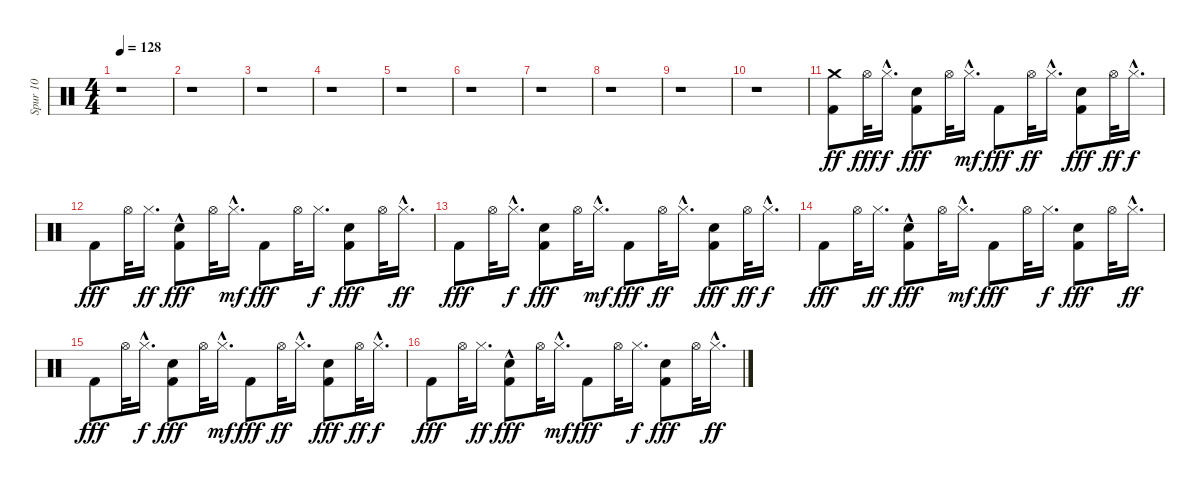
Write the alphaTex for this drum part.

\track ("Spur 10" "Spur 10") {instrument percussion}
\staff {score}
\articulation defaults
\ts (4 4)
\tempo 128
\clef neutral
\ks c
r.1{dy ff} |
r.1 |
r.1 |
r.1 |
r.1 |
r.1 |
r.1 |
r.1 |
r.1 |
r.1 |
("Kick (hit) 2" "Crash medium (hit)").8 "Hi-Hat (open)".32{dy fff} "Hi-Hat (closed)"{hac}.16{d dy f} ("Hand Clap (hit)" "Kick (hit) 2").8{dy fff} "Hi-Hat (open)".32 "Hi-Hat (closed)"{hac}.16{d dy mf} "Kick (hit) 2".8{dy fff} "Hi-Hat (open)".32{dy ff} "Hi-Hat (closed)"{hac}.16{d} ("Hand Clap (hit)" "Kick (hit) 2").8{dy fff} "Hi-Hat (open)".32{dy ff} "Hi-Hat (closed)"{hac}.16{d dy f} |
"Kick (hit) 2".8{dy fff} "Hi-Hat (open)".32 "Hi-Hat (closed)".16{d dy ff} ("Hand Clap (hit)"{hac} "Kick (hit) 2").8{dy fff} "Hi-Hat (open)".32 "Hi-Hat (closed)"{hac}.16{d dy mf} "Kick (hit) 2".8{dy fff} "Hi-Hat (open)".32 "Hi-Hat (closed)".16{d dy f} ("Hand Clap (hit)" "Kick (hit) 2").8{dy fff} "Hi-Hat (open)".32 "Hi-Hat (closed)"{hac}.16{d dy ff} |
"Kick (hit) 2".8{dy fff} "Hi-Hat (open)".32 "Hi-Hat (closed)"{hac}.16{d dy f} ("Hand Clap (hit)" "Kick (hit) 2").8{dy fff} "Hi-Hat (open)".32 "Hi-Hat (closed)"{hac}.16{d dy mf} "Kick (hit) 2".8{dy fff} "Hi-Hat (open)".32{dy ff} "Hi-Hat (closed)"{hac}.16{d} ("Hand Clap (hit)" "Kick (hit) 2").8{dy fff} "Hi-Hat (open)".32{dy ff} "Hi-Hat (closed)"{hac}.16{d dy f} |
"Kick (hit) 2".8{dy fff} "Hi-Hat (open)".32 "Hi-Hat (closed)".16{d dy ff} ("Hand Clap (hit)"{hac} "Kick (hit) 2").8{dy fff} "Hi-Hat (open)".32 "Hi-Hat (closed)"{hac}.16{d dy mf} "Kick (hit) 2".8{dy fff} "Hi-Hat (open)".32 "Hi-Hat (closed)".16{d dy f} ("Hand Clap (hit)" "Kick (hit) 2").8{dy fff} "Hi-Hat (open)".32 "Hi-Hat (closed)"{hac}.16{d dy ff} |
"Kick (hit) 2".8{dy fff} "Hi-Hat (open)".32 "Hi-Hat (closed)"{hac}.16{d dy f} ("Hand Clap (hit)" "Kick (hit) 2").8{dy fff} "Hi-Hat (open)".32 "Hi-Hat (closed)"{hac}.16{d dy mf} "Kick (hit) 2".8{dy fff} "Hi-Hat (open)".32{dy ff} "Hi-Hat (closed)"{hac}.16{d} ("Hand Clap (hit)" "Kick (hit) 2").8{dy fff} "Hi-Hat (open)".32{dy ff} "Hi-Hat (closed)"{hac}.16{d dy f} |
"Kick (hit) 2".8{dy fff} "Hi-Hat (open)".32 "Hi-Hat (closed)".16{d dy ff} ("Hand Clap (hit)"{hac} "Kick (hit) 2").8{dy fff} "Hi-Hat (open)".32 "Hi-Hat (closed)"{hac}.16{d dy mf} "Kick (hit) 2".8{dy fff} "Hi-Hat (open)".32 "Hi-Hat (closed)".16{d dy f} ("Hand Clap (hit)" "Kick (hit) 2").8{dy fff} "Hi-Hat (open)".32 "Hi-Hat (closed)"{hac}.16{d dy ff}
